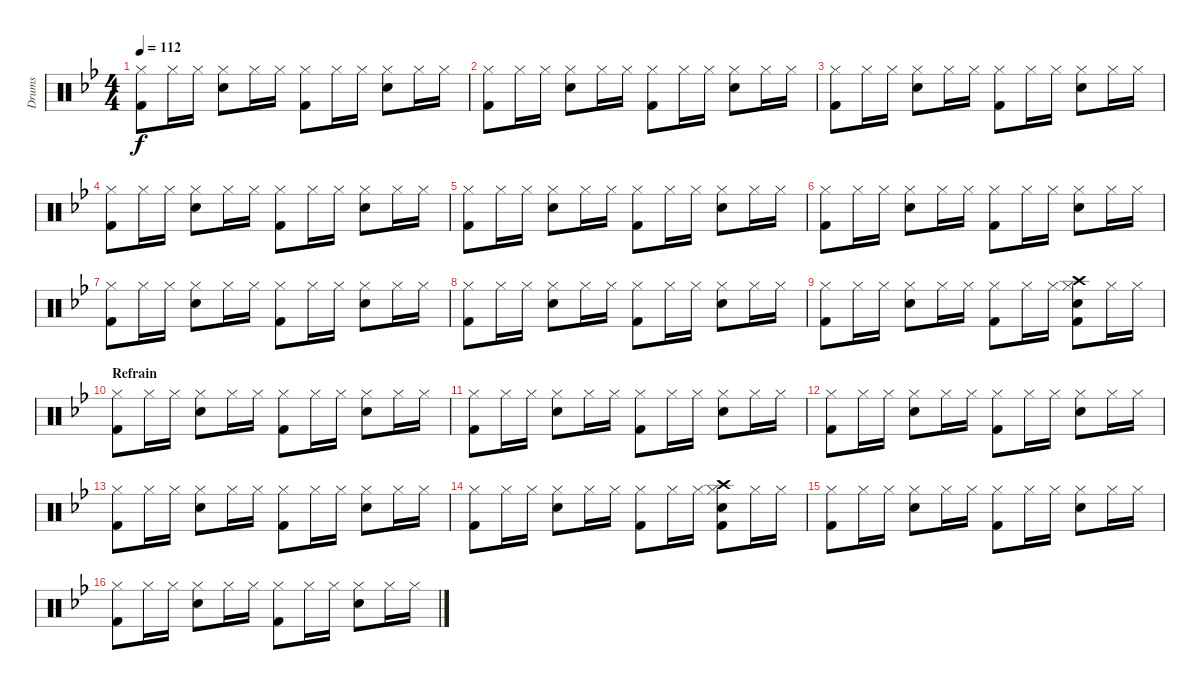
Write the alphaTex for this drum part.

\track ("Drums" "Drums") {instrument percussion}
\staff {score}
\articulation defaults
\ts (4 4)
\tempo 112
\clef neutral
\ks bb
("Hi-Hat (closed)" "Kick (hit) 2").8{dy f} "Hi-Hat (closed)".16 "Hi-Hat (closed)".16 ("Snare (hit) 2" "Hi-Hat (closed)").8 "Hi-Hat (closed)".16 "Hi-Hat (closed)".16 ("Hi-Hat (closed)" "Kick (hit) 2").8 "Hi-Hat (closed)".16 "Hi-Hat (closed)".16 ("Snare (hit) 2" "Hi-Hat (closed)").8 "Hi-Hat (closed)".16 "Hi-Hat (closed)".16 |
("Hi-Hat (closed)" "Kick (hit) 2").8 "Hi-Hat (closed)".16 "Hi-Hat (closed)".16 ("Snare (hit) 2" "Hi-Hat (closed)").8 "Hi-Hat (closed)".16 "Hi-Hat (closed)".16 ("Hi-Hat (closed)" "Kick (hit) 2").8 "Hi-Hat (closed)".16 "Hi-Hat (closed)".16 ("Snare (hit) 2" "Hi-Hat (closed)").8 "Hi-Hat (closed)".16 "Hi-Hat (closed)".16 |
("Hi-Hat (closed)" "Kick (hit) 2").8 "Hi-Hat (closed)".16 "Hi-Hat (closed)".16 ("Snare (hit) 2" "Hi-Hat (closed)").8 "Hi-Hat (closed)".16 "Hi-Hat (closed)".16 ("Hi-Hat (closed)" "Kick (hit) 2").8 "Hi-Hat (closed)".16 "Hi-Hat (closed)".16 ("Snare (hit) 2" "Hi-Hat (closed)").8 "Hi-Hat (closed)".16 "Hi-Hat (closed)".16 |
("Hi-Hat (closed)" "Kick (hit) 2").8 "Hi-Hat (closed)".16 "Hi-Hat (closed)".16 ("Snare (hit) 2" "Hi-Hat (closed)").8 "Hi-Hat (closed)".16 "Hi-Hat (closed)".16 ("Hi-Hat (closed)" "Kick (hit) 2").8 "Hi-Hat (closed)".16 "Hi-Hat (closed)".16 ("Snare (hit) 2" "Hi-Hat (closed)").8 "Hi-Hat (closed)".16 "Hi-Hat (closed)".16 |
("Hi-Hat (closed)" "Kick (hit) 2").8 "Hi-Hat (closed)".16 "Hi-Hat (closed)".16 ("Snare (hit) 2" "Hi-Hat (closed)").8 "Hi-Hat (closed)".16 "Hi-Hat (closed)".16 ("Hi-Hat (closed)" "Kick (hit) 2").8 "Hi-Hat (closed)".16 "Hi-Hat (closed)".16 ("Snare (hit) 2" "Hi-Hat (closed)").8 "Hi-Hat (closed)".16 "Hi-Hat (closed)".16 |
("Hi-Hat (closed)" "Kick (hit) 2").8 "Hi-Hat (closed)".16 "Hi-Hat (closed)".16 ("Snare (hit) 2" "Hi-Hat (closed)").8 "Hi-Hat (closed)".16 "Hi-Hat (closed)".16 ("Hi-Hat (closed)" "Kick (hit) 2").8 "Hi-Hat (closed)".16 "Hi-Hat (closed)".16 ("Snare (hit) 2" "Hi-Hat (closed)").8 "Hi-Hat (closed)".16 "Hi-Hat (closed)".16 |
("Hi-Hat (closed)" "Kick (hit) 2").8 "Hi-Hat (closed)".16 "Hi-Hat (closed)".16 ("Snare (hit) 2" "Hi-Hat (closed)").8 "Hi-Hat (closed)".16 "Hi-Hat (closed)".16 ("Hi-Hat (closed)" "Kick (hit) 2").8 "Hi-Hat (closed)".16 "Hi-Hat (closed)".16 ("Snare (hit) 2" "Hi-Hat (closed)").8 "Hi-Hat (closed)".16 "Hi-Hat (closed)".16 |
("Hi-Hat (closed)" "Kick (hit) 2").8 "Hi-Hat (closed)".16 "Hi-Hat (closed)".16 ("Snare (hit) 2" "Hi-Hat (closed)").8 "Hi-Hat (closed)".16 "Hi-Hat (closed)".16 ("Hi-Hat (closed)" "Kick (hit) 2").8 "Hi-Hat (closed)".16 "Hi-Hat (closed)".16 ("Snare (hit) 2" "Hi-Hat (closed)").8 "Hi-Hat (closed)".16 "Hi-Hat (closed)".16 |
("Hi-Hat (closed)" "Kick (hit) 2").8 "Hi-Hat (closed)".16 "Hi-Hat (closed)".16 ("Snare (hit) 2" "Hi-Hat (closed)").8 "Hi-Hat (closed)".16 "Hi-Hat (closed)".16 ("Hi-Hat (closed)" "Kick (hit) 2").8 "Hi-Hat (closed)".16 "Hi-Hat (closed)".16 ("Snare (hit) 2" "Hi-Hat (closed)" "Crash high (hit)" "Kick (hit) 2").8 "Hi-Hat (closed)".16 "Hi-Hat (closed)".16 |
\section ("" "Refrain")
("Hi-Hat (closed)" "Kick (hit) 2").8 "Hi-Hat (closed)".16 "Hi-Hat (closed)".16 ("Snare (hit) 2" "Hi-Hat (closed)").8 "Hi-Hat (closed)".16 "Hi-Hat (closed)".16 ("Hi-Hat (closed)" "Kick (hit) 2").8 "Hi-Hat (closed)".16 "Hi-Hat (closed)".16 ("Snare (hit) 2" "Hi-Hat (closed)").8 "Hi-Hat (closed)".16 "Hi-Hat (closed)".16 |
("Hi-Hat (closed)" "Kick (hit) 2").8 "Hi-Hat (closed)".16 "Hi-Hat (closed)".16 ("Snare (hit) 2" "Hi-Hat (closed)").8 "Hi-Hat (closed)".16 "Hi-Hat (closed)".16 ("Hi-Hat (closed)" "Kick (hit) 2").8 "Hi-Hat (closed)".16 "Hi-Hat (closed)".16 ("Snare (hit) 2" "Hi-Hat (closed)").8 "Hi-Hat (closed)".16 "Hi-Hat (closed)".16 |
("Hi-Hat (closed)" "Kick (hit) 2").8 "Hi-Hat (closed)".16 "Hi-Hat (closed)".16 ("Snare (hit) 2" "Hi-Hat (closed)").8 "Hi-Hat (closed)".16 "Hi-Hat (closed)".16 ("Hi-Hat (closed)" "Kick (hit) 2").8 "Hi-Hat (closed)".16 "Hi-Hat (closed)".16 ("Snare (hit) 2" "Hi-Hat (closed)").8 "Hi-Hat (closed)".16 "Hi-Hat (closed)".16 |
("Hi-Hat (closed)" "Kick (hit) 2").8 "Hi-Hat (closed)".16 "Hi-Hat (closed)".16 ("Snare (hit) 2" "Hi-Hat (closed)").8 "Hi-Hat (closed)".16 "Hi-Hat (closed)".16 ("Hi-Hat (closed)" "Kick (hit) 2").8 "Hi-Hat (closed)".16 "Hi-Hat (closed)".16 ("Snare (hit) 2" "Hi-Hat (closed)").8 "Hi-Hat (closed)".16 "Hi-Hat (closed)".16 |
("Hi-Hat (closed)" "Kick (hit) 2").8 "Hi-Hat (closed)".16 "Hi-Hat (closed)".16 ("Snare (hit) 2" "Hi-Hat (closed)").8 "Hi-Hat (closed)".16 "Hi-Hat (closed)".16 ("Hi-Hat (closed)" "Kick (hit) 2").8 "Hi-Hat (closed)".16 "Hi-Hat (closed)".16 ("Snare (hit) 2" "Hi-Hat (closed)" "Crash high (hit)" "Kick (hit) 2").8 "Hi-Hat (closed)".16 "Hi-Hat (closed)".16 |
("Hi-Hat (closed)" "Kick (hit) 2").8 "Hi-Hat (closed)".16 "Hi-Hat (closed)".16 ("Snare (hit) 2" "Hi-Hat (closed)").8 "Hi-Hat (closed)".16 "Hi-Hat (closed)".16 ("Hi-Hat (closed)" "Kick (hit) 2").8 "Hi-Hat (closed)".16 "Hi-Hat (closed)".16 ("Snare (hit) 2" "Hi-Hat (closed)").8 "Hi-Hat (closed)".16 "Hi-Hat (closed)".16 |
("Hi-Hat (closed)" "Kick (hit) 2").8 "Hi-Hat (closed)".16 "Hi-Hat (closed)".16 ("Snare (hit) 2" "Hi-Hat (closed)").8 "Hi-Hat (closed)".16 "Hi-Hat (closed)".16 ("Hi-Hat (closed)" "Kick (hit) 2").8 "Hi-Hat (closed)".16 "Hi-Hat (closed)".16 ("Snare (hit) 2" "Hi-Hat (closed)").8 "Hi-Hat (closed)".16 "Hi-Hat (closed)".16
